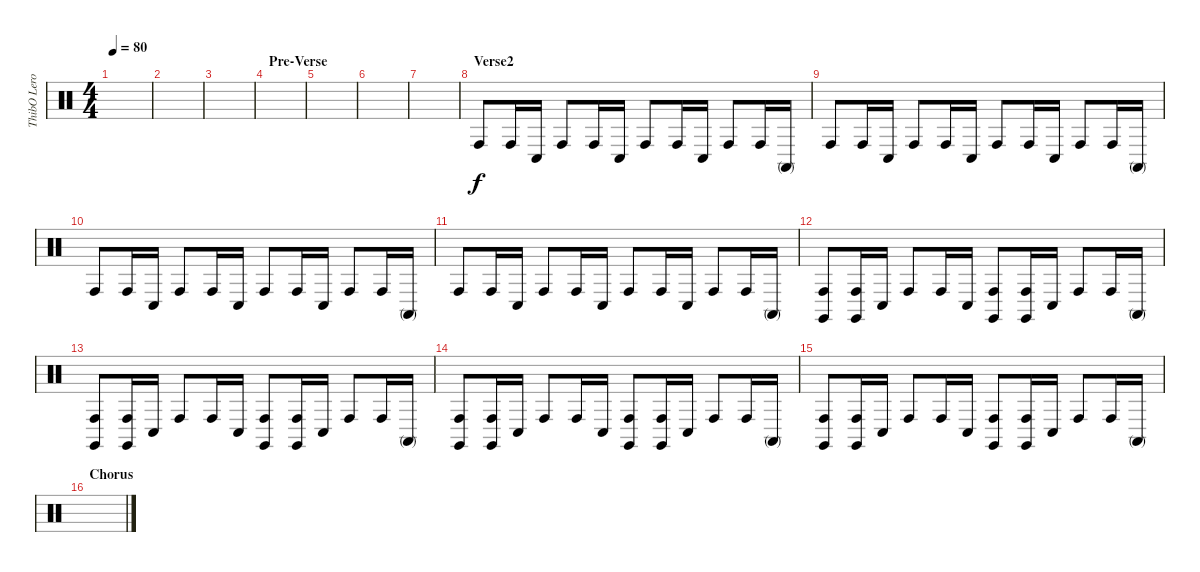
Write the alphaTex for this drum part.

\track ("ThibO LeroY" "ThibO Lero") {instrument percussion}
\staff {score}
\articulation defaults
\ts (4 4)
\tempo 80
\clef neutral
\ks c
|
|
|
\section ("" "Pre-Verse")
|
|
|
|
\section ("" "Verse2")
"Conga high (hit)".8 "Conga high (hit)".16 "Conga low (hit)".16 "Conga high (hit)".8 "Conga high (hit)".16 "Conga low (hit)".16 "Conga high (hit)".8 "Conga high (hit)".16 "Conga low (hit)".16 "Conga high (hit)".8 "Conga high (hit)".16 "Conga high (mute)".16 |
"Conga high (hit)".8 "Conga high (hit)".16 "Conga low (hit)".16 "Conga high (hit)".8 "Conga high (hit)".16 "Conga low (hit)".16 "Conga high (hit)".8 "Conga high (hit)".16 "Conga low (hit)".16 "Conga high (hit)".8 "Conga high (hit)".16 "Conga high (mute)".16 |
"Conga high (hit)".8 "Conga high (hit)".16 "Conga low (hit)".16 "Conga high (hit)".8 "Conga high (hit)".16 "Conga low (hit)".16 "Conga high (hit)".8 "Conga high (hit)".16 "Conga low (hit)".16 "Conga high (hit)".8 "Conga high (hit)".16 "Conga high (mute)".16 |
"Conga high (hit)".8 "Conga high (hit)".16 "Conga low (hit)".16 "Conga high (hit)".8 "Conga high (hit)".16 "Conga low (hit)".16 "Conga high (hit)".8 "Conga high (hit)".16 "Conga low (hit)".16 "Conga high (hit)".8 "Conga high (hit)".16 "Conga high (mute)".16 |
("Conga high (hit)" "Claves (hit)").8 ("Conga high (hit)" "Claves (hit)").16 "Conga low (hit)".16 "Conga high (hit)".8 "Conga high (hit)".16 "Conga low (hit)".16 ("Conga high (hit)" "Claves (hit)").8 ("Conga high (hit)" "Claves (hit)").16 "Conga low (hit)".16 "Conga high (hit)".8 "Conga high (hit)".16 "Conga high (mute)".16 |
("Conga high (hit)" "Claves (hit)").8 ("Conga high (hit)" "Claves (hit)").16 "Conga low (hit)".16 "Conga high (hit)".8 "Conga high (hit)".16 "Conga low (hit)".16 ("Conga high (hit)" "Claves (hit)").8 ("Conga high (hit)" "Claves (hit)").16 "Conga low (hit)".16 "Conga high (hit)".8 "Conga high (hit)".16 "Conga high (mute)".16 |
("Conga high (hit)" "Claves (hit)").8 ("Conga high (hit)" "Claves (hit)").16 "Conga low (hit)".16 "Conga high (hit)".8 "Conga high (hit)".16 "Conga low (hit)".16 ("Conga high (hit)" "Claves (hit)").8 ("Conga high (hit)" "Claves (hit)").16 "Conga low (hit)".16 "Conga high (hit)".8 "Conga high (hit)".16 "Conga high (mute)".16 |
("Conga high (hit)" "Claves (hit)").8 ("Conga high (hit)" "Claves (hit)").16 "Conga low (hit)".16 "Conga high (hit)".8 "Conga high (hit)".16 "Conga low (hit)".16 ("Conga high (hit)" "Claves (hit)").8 ("Conga high (hit)" "Claves (hit)").16 "Conga low (hit)".16 "Conga high (hit)".8 "Conga high (hit)".16 "Conga high (mute)".16 |
\section ("" "Chorus")
